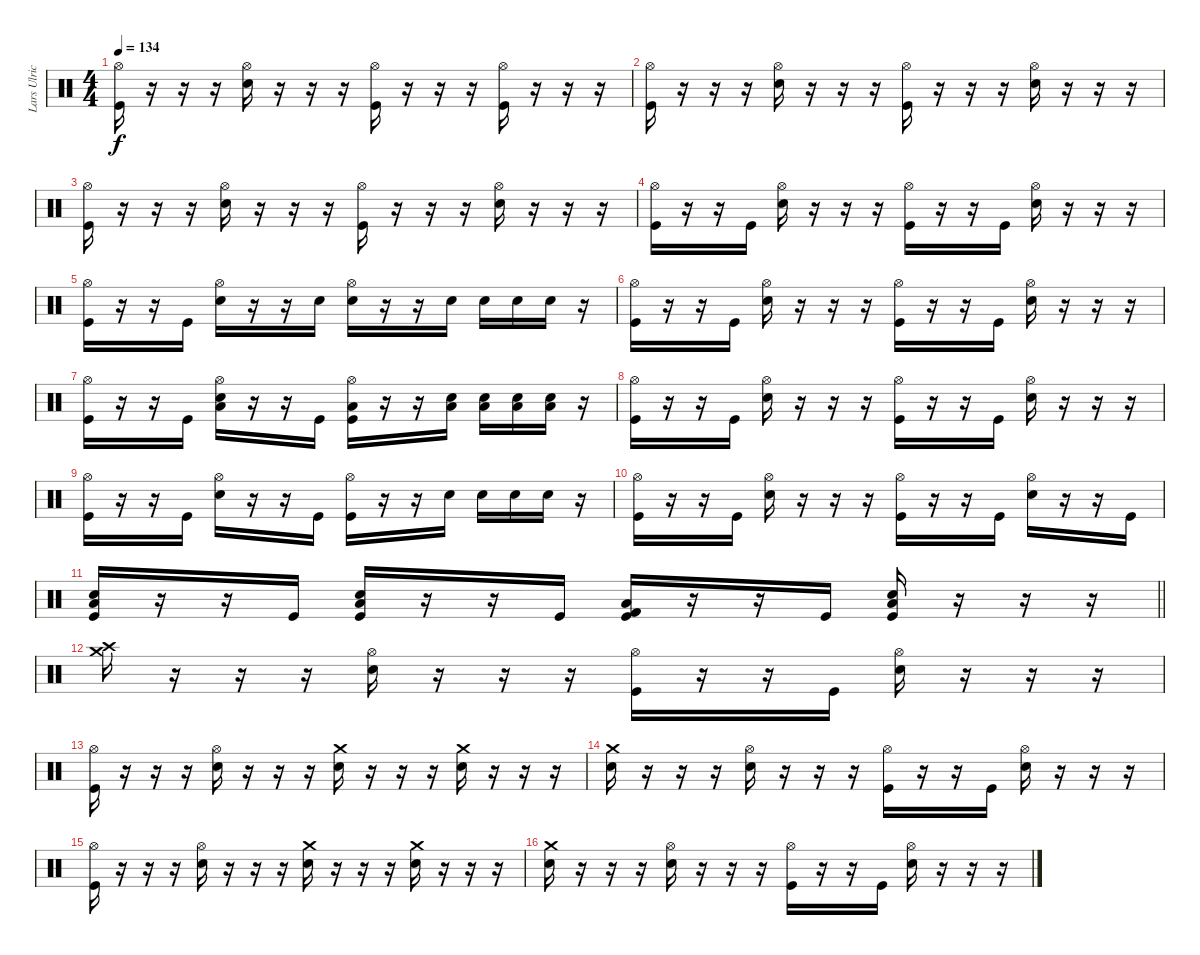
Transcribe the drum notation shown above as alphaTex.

\track ("Lars Ulrich" "Lars Ulric") {instrument percussion}
\staff {score}
\articulation defaults
\ts (4 4)
\tempo 134
\clef neutral
\ks c
("Hi-Hat (open)" "Kick (hit)").16{dy f} r.16 r.16 r.16 ("Hi-Hat (open)" "Snare (hit) 2").16 r.16 r.16 r.16 ("Hi-Hat (open)" "Kick (hit)").16 r.16 r.16 r.16 ("Hi-Hat (open)" "Kick (hit)").16 r.16 r.16 r.16 |
("Hi-Hat (open)" "Kick (hit)").16 r.16 r.16 r.16 ("Hi-Hat (open)" "Snare (hit) 2").16 r.16 r.16 r.16 ("Hi-Hat (open)" "Kick (hit)").16 r.16 r.16 r.16 ("Hi-Hat (open)" "Snare (hit) 2").16 r.16 r.16 r.16 |
("Hi-Hat (open)" "Kick (hit)").16 r.16 r.16 r.16 ("Hi-Hat (open)" "Snare (hit) 2").16 r.16 r.16 r.16 ("Hi-Hat (open)" "Kick (hit)").16 r.16 r.16 r.16 ("Hi-Hat (open)" "Snare (hit) 2").16 r.16 r.16 r.16 |
("Hi-Hat (open)" "Kick (hit)").16 r.16 r.16 "Kick (hit)".16 ("Hi-Hat (open)" "Snare (hit) 2").16 r.16 r.16 r.16 ("Hi-Hat (open)" "Kick (hit)").16 r.16 r.16 "Kick (hit)".16 ("Hi-Hat (open)" "Snare (hit) 2").16 r.16 r.16 r.16 |
("Hi-Hat (open)" "Kick (hit)").16 r.16 r.16 "Kick (hit)".16 ("Hi-Hat (open)" "Snare (hit) 2").16 r.16 r.16 "Snare (hit) 2".16 ("Hi-Hat (open)" "Snare (hit) 2").16 r.16 r.16 "Snare (hit) 2".16 "Snare (hit) 2".16 "Snare (hit) 2".16 "Snare (hit) 2".16 r.16 |
("Hi-Hat (open)" "Kick (hit)").16 r.16 r.16 "Kick (hit)".16 ("Hi-Hat (open)" "Snare (hit) 2").16 r.16 r.16 r.16 ("Hi-Hat (open)" "Kick (hit)").16 r.16 r.16 "Kick (hit)".16 ("Hi-Hat (open)" "Snare (hit) 2").16 r.16 r.16 r.16 |
("Hi-Hat (open)" "Kick (hit)").16 r.16 r.16 "Kick (hit)".16 ("Hi-Hat (open)" "Snare (hit) 2" "Low Floor Tom (hit)").16 r.16 r.16 "Kick (hit)".16 ("Hi-Hat (open)" "Kick (hit)" "Low Floor Tom (hit)").16 r.16 r.16 ("Snare (hit) 2" "Low Floor Tom (hit)").16 ("Snare (hit) 2" "Low Floor Tom (hit)").16 ("Snare (hit) 2" "Low Floor Tom (hit)").16 ("Snare (hit) 2" "Low Floor Tom (hit)").16 r.16 |
("Hi-Hat (open)" "Kick (hit)").16 r.16 r.16 "Kick (hit)".16 ("Hi-Hat (open)" "Snare (hit) 2").16 r.16 r.16 r.16 ("Hi-Hat (open)" "Kick (hit)").16 r.16 r.16 "Kick (hit)".16 ("Hi-Hat (open)" "Snare (hit) 2").16 r.16 r.16 r.16 |
("Hi-Hat (open)" "Kick (hit)").16 r.16 r.16 "Kick (hit)".16 ("Hi-Hat (open)" "Snare (hit) 2").16 r.16 r.16 "Kick (hit)".16 ("Hi-Hat (open)" "Kick (hit)").16 r.16 r.16 "Snare (hit) 2".16 "Snare (hit) 2".16 "Snare (hit) 2".16 "Snare (hit) 2".16 r.16 |
("Hi-Hat (open)" "Kick (hit)").16 r.16 r.16 "Kick (hit)".16 ("Hi-Hat (open)" "Snare (hit) 2").16 r.16 r.16 r.16 ("Hi-Hat (open)" "Kick (hit)").16 r.16 r.16 "Kick (hit)".16 ("Hi-Hat (open)" "Snare (hit) 2").16 r.16 r.16 "Kick (hit)".16 |
\barLineRight lightlight
("Kick (hit)" "Snare (hit) 2" "Low Floor Tom (hit)").16 r.16 r.16 "Kick (hit)".16 ("Kick (hit)" "Snare (hit) 2" "Low Floor Tom (hit)").16 r.16 r.16 "Kick (hit)".16 ("Kick (hit)" "Kick (hit) 2" "Low Floor Tom (hit)").16 r.16 r.16 "Kick (hit)".16 ("Kick (hit)" "Snare (hit) 2" "Low Floor Tom (hit)").16 r.16 r.16 r.16 |
("Crash medium (hit)" "Crash high (hit)").16 r.16 r.16 r.16 ("Hi-Hat (open)" "Snare (hit) 2").16 r.16 r.16 r.16 ("Hi-Hat (open)" "Kick (hit)").16 r.16 r.16 "Kick (hit)".16 ("Hi-Hat (open)" "Snare (hit) 2").16 r.16 r.16 r.16 |
("Hi-Hat (open)" "Kick (hit)").16 r.16 r.16 r.16 ("Hi-Hat (open)" "Snare (hit) 2").16 r.16 r.16 r.16 ("Crash medium (hit)" "Snare (hit) 2").16 r.16 r.16 r.16 ("Crash medium (hit)" "Snare (hit) 2").16 r.16 r.16 r.16 |
("Crash medium (hit)" "Snare (hit) 2").16 r.16 r.16 r.16 ("Hi-Hat (open)" "Snare (hit) 2").16 r.16 r.16 r.16 ("Hi-Hat (open)" "Kick (hit)").16 r.16 r.16 "Kick (hit)".16 ("Hi-Hat (open)" "Snare (hit) 2").16 r.16 r.16 r.16 |
("Hi-Hat (open)" "Kick (hit)").16 r.16 r.16 r.16 ("Hi-Hat (open)" "Snare (hit) 2").16 r.16 r.16 r.16 ("Crash medium (hit)" "Snare (hit) 2").16 r.16 r.16 r.16 ("Crash medium (hit)" "Snare (hit) 2").16 r.16 r.16 r.16 |
("Crash medium (hit)" "Snare (hit) 2").16 r.16 r.16 r.16 ("Hi-Hat (open)" "Snare (hit) 2").16 r.16 r.16 r.16 ("Hi-Hat (open)" "Kick (hit)").16 r.16 r.16 "Kick (hit)".16 ("Hi-Hat (open)" "Snare (hit) 2").16 r.16 r.16 r.16
